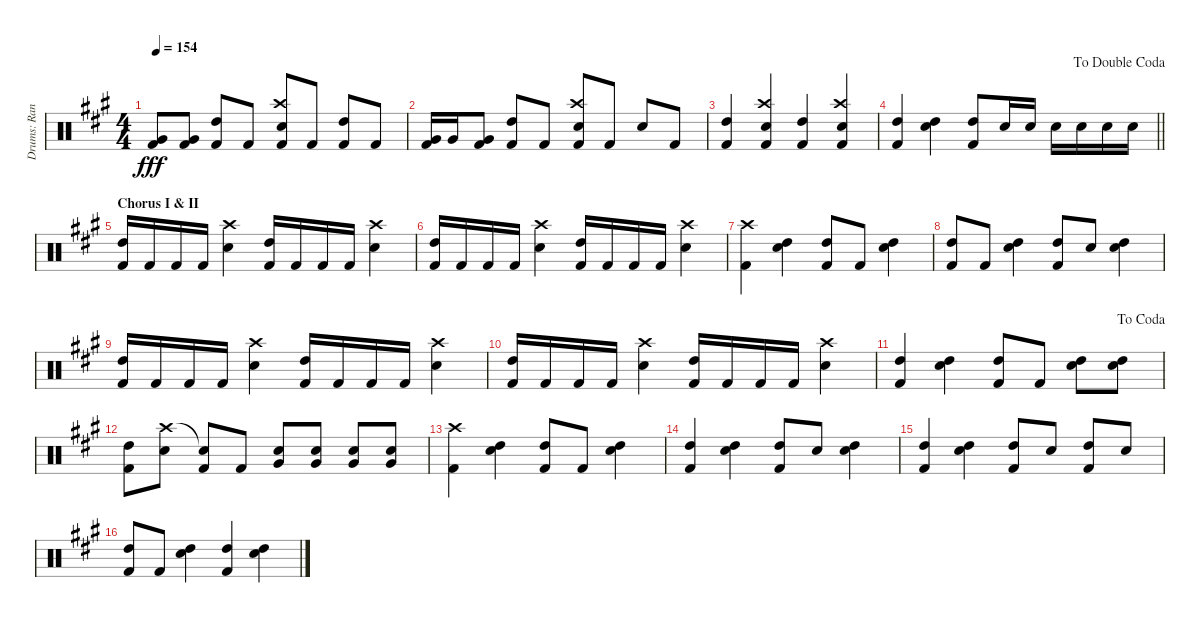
\track ("Drums: Randy" "Drums: Ran") {instrument percussion}
\staff {score}
\articulation defaults
\ts (4 4)
\tempo 154
\clef neutral
\ks a
("Very Low Tom (hit)" "Kick (hit) 2").8{dy fff} ("Very Low Tom (hit)" "Kick (hit) 2").8 ("High Tom (hit)" "Kick (hit) 2").8 "Kick (hit) 2".8 ("Crash high (hit)" "Snare (hit) 2" "Kick (hit) 2").8 "Kick (hit) 2".8 ("High Tom (hit)" "Kick (hit) 2").8 "Kick (hit) 2".8 |
("Very Low Tom (hit)" "Kick (hit) 2").16 "Very Low Tom (hit)".16 ("Very Low Tom (hit)" "Kick (hit) 2").8 ("High Tom (hit)" "Kick (hit) 2").8 "Kick (hit) 2".8 ("Crash high (hit)" "Snare (hit) 2" "Kick (hit) 2").8 "Kick (hit) 2".8 "Snare (hit) 2".8 "Kick (hit) 2".8 |
("High Tom (hit)" "Kick (hit) 2").4 ("Crash high (hit)" "Snare (hit) 2" "Kick (hit) 2").4 ("High Tom (hit)" "Kick (hit) 2").4 ("Crash high (hit)" "Snare (hit) 2" "Kick (hit) 2").4 |
\jump dadoublecoda
\barLineRight lightlight
("High Tom (hit)" "Kick (hit) 2").4 ("Snare (hit) 2" "High Tom (hit)").4 ("High Tom (hit)" "Kick (hit) 2").8 "Snare (hit) 2".16 "Snare (hit) 2".16 "Snare (hit) 2".16 "Snare (hit) 2".16 "Snare (hit) 2".16 "Snare (hit) 2".16 |
\section ("" "Chorus I & II")
("High Tom (hit)" "Kick (hit) 2").16 "Kick (hit) 2".16 "Kick (hit) 2".16 "Kick (hit) 2".16 ("Crash high (hit)" "Snare (hit) 2").4 ("High Tom (hit)" "Kick (hit) 2").16 "Kick (hit) 2".16 "Kick (hit) 2".16 "Kick (hit) 2".16 ("Crash high (hit)" "Snare (hit) 2").4 |
("High Tom (hit)" "Kick (hit) 2").16 "Kick (hit) 2".16 "Kick (hit) 2".16 "Kick (hit) 2".16 ("Crash high (hit)" "Snare (hit) 2").4 ("High Tom (hit)" "Kick (hit) 2").16 "Kick (hit) 2".16 "Kick (hit) 2".16 "Kick (hit) 2".16 ("Crash high (hit)" "Snare (hit) 2").4 |
("Crash high (hit)" "Kick (hit) 2").4 ("Snare (hit) 2" "High Tom (hit)").4 ("High Tom (hit)" "Kick (hit) 2").8 "Kick (hit) 2".8 ("Snare (hit) 2" "High Tom (hit)").4 |
("High Tom (hit)" "Kick (hit) 2").8 "Kick (hit) 2".8 ("Snare (hit) 2" "High Tom (hit)").4 ("High Tom (hit)" "Kick (hit) 2").8 "Snare (hit) 2".8 ("Snare (hit) 2" "High Tom (hit)").4 |
("High Tom (hit)" "Kick (hit) 2").16 "Kick (hit) 2".16 "Kick (hit) 2".16 "Kick (hit) 2".16 ("Crash high (hit)" "Snare (hit) 2").4 ("High Tom (hit)" "Kick (hit) 2").16 "Kick (hit) 2".16 "Kick (hit) 2".16 "Kick (hit) 2".16 ("Crash high (hit)" "Snare (hit) 2").4 |
("High Tom (hit)" "Kick (hit) 2").16 "Kick (hit) 2".16 "Kick (hit) 2".16 "Kick (hit) 2".16 ("Crash high (hit)" "Snare (hit) 2").4 ("High Tom (hit)" "Kick (hit) 2").16 "Kick (hit) 2".16 "Kick (hit) 2".16 "Kick (hit) 2".16 ("Crash high (hit)" "Snare (hit) 2").4 |
\jump dacoda
("High Tom (hit)" "Kick (hit) 2").4 ("Snare (hit) 2" "High Tom (hit)").4 ("High Tom (hit)" "Kick (hit) 2").8 "Kick (hit) 2".8 ("Snare (hit) 2" "High Tom (hit)").8 ("Snare (hit) 2" "High Tom (hit)").8 |
("High Tom (hit)" "Kick (hit) 2").8 ("Crash high (hit)" "Snare (hit) 2").8 ("Snare (hit)"{t} "Kick (hit) 2").8 "Kick (hit) 2".8 ("Snare (hit) 2" "Very Low Tom (hit)").8 ("Snare (hit) 2" "Very Low Tom (hit)").8 ("Snare (hit) 2" "Very Low Tom (hit)").8 ("Snare (hit) 2" "Very Low Tom (hit)").8 |
("Crash high (hit)" "Kick (hit) 2").4 ("Snare (hit) 2" "High Tom (hit)").4 ("High Tom (hit)" "Kick (hit) 2").8 "Kick (hit) 2".8 ("Snare (hit) 2" "High Tom (hit)").4 |
("High Tom (hit)" "Kick (hit) 2").4 ("Snare (hit) 2" "High Tom (hit)").4 ("High Tom (hit)" "Kick (hit) 2").8 "Snare (hit) 2".8 ("Snare (hit) 2" "High Tom (hit)").4 |
("High Tom (hit)" "Kick (hit) 2").4 ("Snare (hit) 2" "High Tom (hit)").4 ("High Tom (hit)" "Kick (hit) 2").8 "Snare (hit) 2".8 ("High Tom (hit)" "Kick (hit) 2").8 "Snare (hit) 2".8 |
("High Tom (hit)" "Kick (hit) 2").8 "Kick (hit) 2".8 ("Snare (hit) 2" "High Tom (hit)").4 ("High Tom (hit)" "Kick (hit) 2").4 ("Snare (hit) 2" "High Tom (hit)").4
